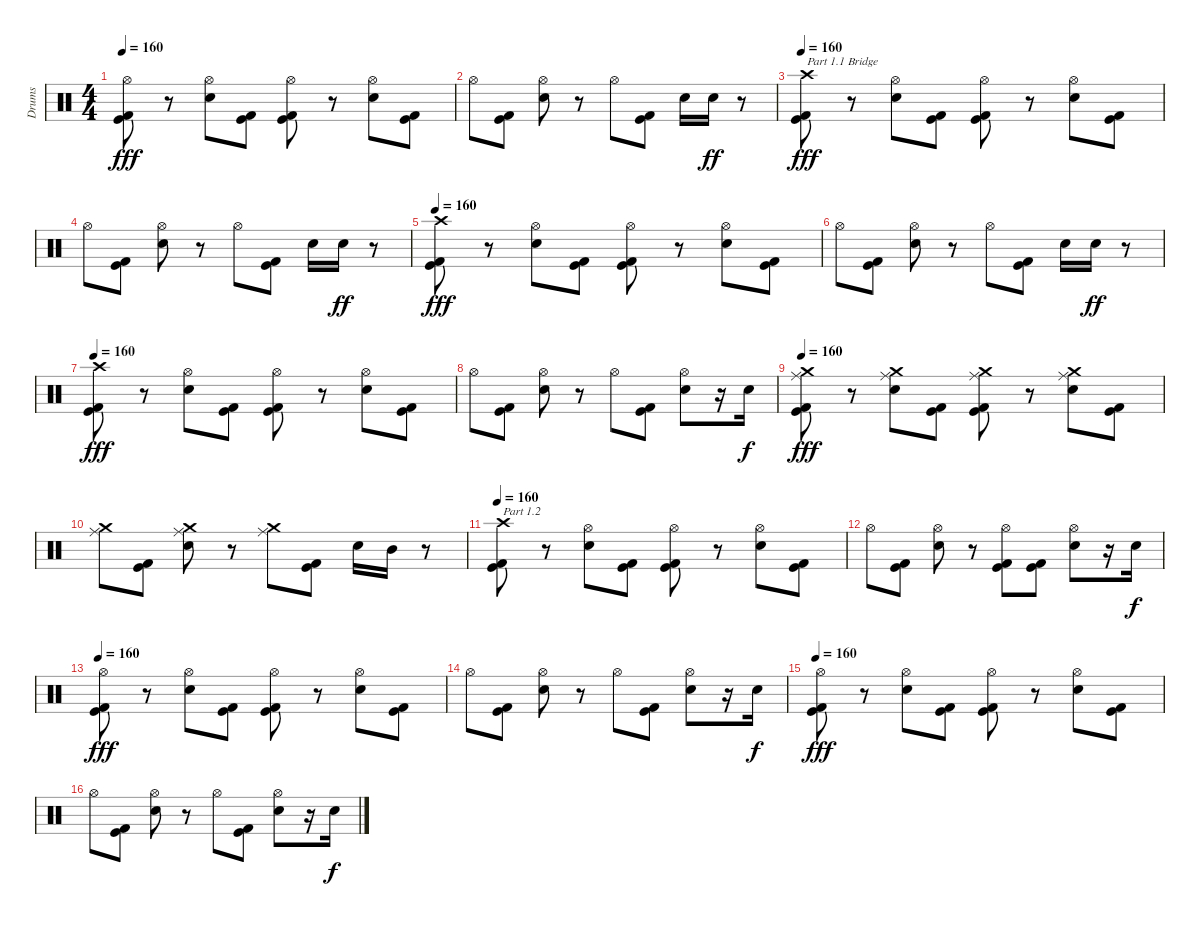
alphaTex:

\track ("Drums" "Drums") {instrument percussion}
\staff {score}
\articulation defaults
\ts (4 4)
\tempo 160
\clef neutral
\ks c
("Kick (hit)" "Kick (hit) 2" "Hi-Hat (open)").8{dy fff} r.8 ("Electric Snare (hit)" "Hi-Hat (open)").8 ("Kick (hit)" "Kick (hit) 2").8 ("Kick (hit)" "Kick (hit) 2" "Hi-Hat (open)").8 r.8 ("Electric Snare (hit)" "Hi-Hat (open)").8 ("Kick (hit)" "Kick (hit) 2").8 |
"Hi-Hat (open)".8 ("Kick (hit)" "Kick (hit) 2").8 ("Electric Snare (hit)" "Hi-Hat (open)").8 r.8 "Hi-Hat (open)".8 ("Kick (hit)" "Kick (hit) 2").8 "Electric Snare (hit)".16 "Electric Snare (hit)".16{dy ff} r.8 |
\tempo 160
("Kick (hit)" "Kick (hit) 2" "Crash high (hit)").8{txt "Part 1.1 Bridge" dy fff} r.8 ("Electric Snare (hit)" "Hi-Hat (open)").8 ("Kick (hit)" "Kick (hit) 2").8 ("Kick (hit)" "Kick (hit) 2" "Hi-Hat (open)").8 r.8 ("Electric Snare (hit)" "Hi-Hat (open)").8 ("Kick (hit)" "Kick (hit) 2").8 |
"Hi-Hat (open)".8 ("Kick (hit)" "Kick (hit) 2").8 ("Electric Snare (hit)" "Hi-Hat (open)").8 r.8 "Hi-Hat (open)".8 ("Kick (hit)" "Kick (hit) 2").8 "Electric Snare (hit)".16 "Electric Snare (hit)".16{dy ff} r.8 |
\tempo 160
("Kick (hit)" "Kick (hit) 2" "Crash high (hit)").8{dy fff} r.8 ("Electric Snare (hit)" "Hi-Hat (open)").8 ("Kick (hit)" "Kick (hit) 2").8 ("Kick (hit)" "Kick (hit) 2" "Hi-Hat (open)").8 r.8 ("Electric Snare (hit)" "Hi-Hat (open)").8 ("Kick (hit)" "Kick (hit) 2").8 |
"Hi-Hat (open)".8 ("Kick (hit)" "Kick (hit) 2").8 ("Electric Snare (hit)" "Hi-Hat (open)").8 r.8 "Hi-Hat (open)".8 ("Kick (hit)" "Kick (hit) 2").8 "Electric Snare (hit)".16 "Electric Snare (hit)".16{dy ff} r.8 |
\tempo 160
("Kick (hit)" "Kick (hit) 2" "Crash high (hit)").8{dy fff} r.8 ("Electric Snare (hit)" "Hi-Hat (open)").8 ("Kick (hit)" "Kick (hit) 2").8 ("Kick (hit)" "Kick (hit) 2" "Hi-Hat (open)").8 r.8 ("Electric Snare (hit)" "Hi-Hat (open)").8 ("Kick (hit)" "Kick (hit) 2").8 |
"Hi-Hat (open)".8 ("Kick (hit)" "Kick (hit) 2").8 ("Electric Snare (hit)" "Hi-Hat (open)").8 r.8 "Hi-Hat (open)".8 ("Kick (hit)" "Kick (hit) 2").8 ("Electric Snare (hit)" "Hi-Hat (open)").8 r.16 "Electric Snare (hit)".16{dy f} |
\tempo 160
("Kick (hit)" "Kick (hit) 2" "Crash medium (hit)" "Ride (middle)").8{dy fff} r.8 ("Electric Snare (hit)" "Crash medium (hit)" "Ride (middle)").8 ("Kick (hit)" "Kick (hit) 2").8 ("Kick (hit)" "Kick (hit) 2" "Crash medium (hit)" "Ride (middle)").8 r.8 ("Electric Snare (hit)" "Crash medium (hit)" "Ride (middle)").8 ("Kick (hit)" "Kick (hit) 2").8 |
("Crash medium (hit)" "Ride (middle)").8 ("Kick (hit)" "Kick (hit) 2").8 ("Electric Snare (hit)" "Crash medium (hit)" "Ride (middle)").8 r.8 ("Crash medium (hit)" "Ride (middle)").8 ("Kick (hit)" "Kick (hit) 2").8 "Electric Snare (hit)".16 "Mid Tom (hit)".16 r.8 |
\tempo 160
("Kick (hit)" "Kick (hit) 2" "Crash high (hit)").8{txt "Part 1.2"} r.8 ("Electric Snare (hit)" "Hi-Hat (open)").8 ("Kick (hit)" "Kick (hit) 2").8 ("Kick (hit)" "Kick (hit) 2" "Hi-Hat (open)").8 r.8 ("Electric Snare (hit)" "Hi-Hat (open)").8 ("Kick (hit)" "Kick (hit) 2").8 |
"Hi-Hat (open)".8 ("Kick (hit)" "Kick (hit) 2").8 ("Electric Snare (hit)" "Hi-Hat (open)").8 r.8 ("Kick (hit)" "Kick (hit) 2" "Hi-Hat (open)").8 ("Kick (hit)" "Kick (hit) 2").8 ("Electric Snare (hit)" "Hi-Hat (open)").8 r.16 "Electric Snare (hit)".16{dy f} |
\tempo 160
("Kick (hit)" "Kick (hit) 2" "Hi-Hat (open)").8{dy fff} r.8 ("Electric Snare (hit)" "Hi-Hat (open)").8 ("Kick (hit)" "Kick (hit) 2").8 ("Kick (hit)" "Kick (hit) 2" "Hi-Hat (open)").8 r.8 ("Electric Snare (hit)" "Hi-Hat (open)").8 ("Kick (hit)" "Kick (hit) 2").8 |
"Hi-Hat (open)".8 ("Kick (hit)" "Kick (hit) 2").8 ("Electric Snare (hit)" "Hi-Hat (open)").8 r.8 "Hi-Hat (open)".8 ("Kick (hit)" "Kick (hit) 2").8 ("Electric Snare (hit)" "Hi-Hat (open)").8 r.16 "Electric Snare (hit)".16{dy f} |
\tempo 160
("Kick (hit)" "Kick (hit) 2" "Hi-Hat (open)").8{dy fff} r.8 ("Electric Snare (hit)" "Hi-Hat (open)").8 ("Kick (hit)" "Kick (hit) 2").8 ("Kick (hit)" "Kick (hit) 2" "Hi-Hat (open)").8 r.8 ("Electric Snare (hit)" "Hi-Hat (open)").8 ("Kick (hit)" "Kick (hit) 2").8 |
"Hi-Hat (open)".8 ("Kick (hit)" "Kick (hit) 2").8 ("Electric Snare (hit)" "Hi-Hat (open)").8 r.8 "Hi-Hat (open)".8 ("Kick (hit)" "Kick (hit) 2").8 ("Electric Snare (hit)" "Hi-Hat (open)").8 r.16 "Electric Snare (hit)".16{dy f}
